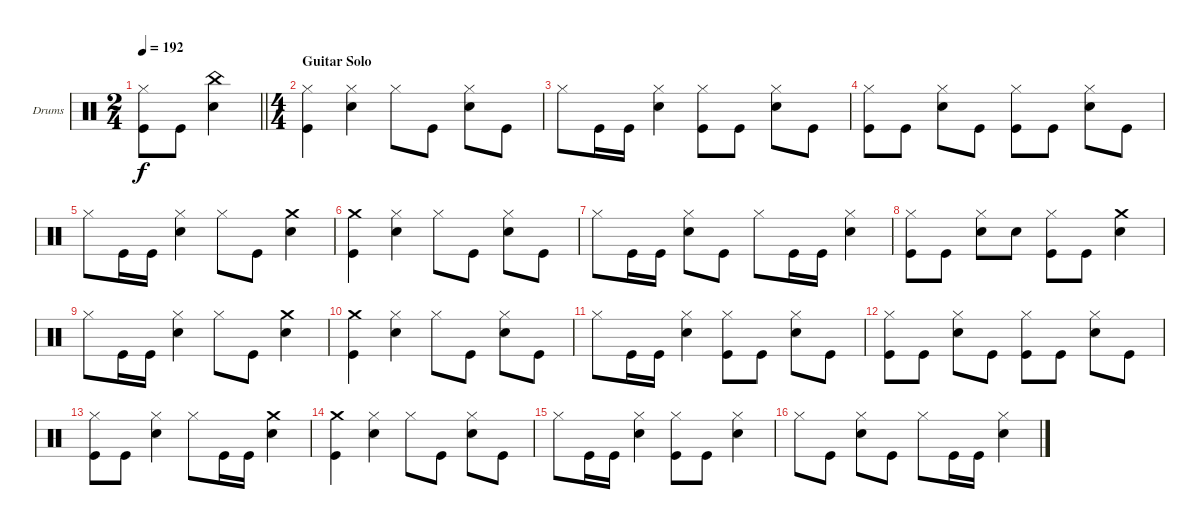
\bracketExtendMode groupsimilarinstruments
\firstSystemTrackNameOrientation horizontal
\otherSystemsTrackNameOrientation horizontal
\track ("Lars Ulrich" "Drums") {instrument percussion}
\staff {score}
\articulation defaults
\ts (2 4)
\beaming (8 2 2)
\tempo 192
\clef neutral
\barLineRight lightlight
\ks c
("Hi-Hat (closed)" "Kick (hit)").8{dy f} "Kick (hit)".8 ("China (hit)" "Snare (hit) 2").4 |
\ts (4 4)
\beaming (8 2 2 2 2)
\section ("" "Guitar Solo")
("Hi-Hat (closed)" "Kick (hit)").4 ("Hi-Hat (closed)" "Snare (hit) 2").4 "Hi-Hat (closed)".8 "Kick (hit)".8 ("Hi-Hat (closed)" "Snare (hit) 2").8 "Kick (hit)".8 |
"Hi-Hat (closed)".8 "Kick (hit)".16 "Kick (hit)".16 ("Hi-Hat (closed)" "Snare (hit) 2").4 ("Hi-Hat (closed)" "Kick (hit)").8 "Kick (hit)".8 ("Hi-Hat (closed)" "Snare (hit) 2").8 "Kick (hit)".8 |
("Hi-Hat (closed)" "Kick (hit)").8 "Kick (hit)".8 ("Hi-Hat (closed)" "Snare (hit) 2").8 "Kick (hit)".8 ("Hi-Hat (closed)" "Kick (hit)").8 "Kick (hit)".8 ("Hi-Hat (closed)" "Snare (hit) 2").8 "Kick (hit)".8 |
"Hi-Hat (closed)".8 "Kick (hit)".16 "Kick (hit)".16 ("Hi-Hat (closed)" "Snare (hit) 2").4 "Hi-Hat (closed)".8 "Kick (hit)".8 ("Crash medium (hit)" "Snare (hit) 2").4 |
("Crash medium (hit)" "Kick (hit)").4 ("Hi-Hat (closed)" "Snare (hit) 2").4 "Hi-Hat (closed)".8 "Kick (hit)".8 ("Hi-Hat (closed)" "Snare (hit) 2").8 "Kick (hit)".8 |
"Hi-Hat (closed)".8 "Kick (hit)".16 "Kick (hit)".16 ("Hi-Hat (closed)" "Snare (hit) 2").8 "Kick (hit)".8 "Hi-Hat (closed)".8 "Kick (hit)".16 "Kick (hit)".16 ("Hi-Hat (closed)" "Snare (hit) 2").4 |
("Hi-Hat (closed)" "Kick (hit)").8 "Kick (hit)".8 ("Hi-Hat (closed)" "Snare (hit) 2").8 "Snare (hit) 2".8 ("Hi-Hat (closed)" "Kick (hit)").8 "Kick (hit)".8 ("Crash medium (hit)" "Snare (hit) 2").4 |
"Hi-Hat (closed)".8 "Kick (hit)".16 "Kick (hit)".16 ("Hi-Hat (closed)" "Snare (hit) 2").4 "Hi-Hat (closed)".8 "Kick (hit)".8 ("Crash medium (hit)" "Snare (hit) 2").4 |
("Crash medium (hit)" "Kick (hit)").4 ("Hi-Hat (closed)" "Snare (hit) 2").4 "Hi-Hat (closed)".8 "Kick (hit)".8 ("Hi-Hat (closed)" "Snare (hit) 2").8 "Kick (hit)".8 |
"Hi-Hat (closed)".8 "Kick (hit)".16 "Kick (hit)".16 ("Hi-Hat (closed)" "Snare (hit) 2").4 ("Hi-Hat (closed)" "Kick (hit)").8 "Kick (hit)".8 ("Hi-Hat (closed)" "Snare (hit) 2").8 "Kick (hit)".8 |
("Hi-Hat (closed)" "Kick (hit)").8 "Kick (hit)".8 ("Hi-Hat (closed)" "Snare (hit) 2").8 "Kick (hit)".8 ("Hi-Hat (closed)" "Kick (hit)").8 "Kick (hit)".8 ("Hi-Hat (closed)" "Snare (hit) 2").8 "Kick (hit)".8 |
("Hi-Hat (closed)" "Kick (hit)").8 "Kick (hit)".8 ("Hi-Hat (closed)" "Snare (hit) 2").4 "Hi-Hat (closed)".8 "Kick (hit)".16 "Kick (hit)".16 ("Crash medium (hit)" "Snare (hit) 2").4 |
("Crash medium (hit)" "Kick (hit)").4 ("Hi-Hat (closed)" "Snare (hit) 2").4 "Hi-Hat (closed)".8 "Kick (hit)".8 ("Hi-Hat (closed)" "Snare (hit) 2").8 "Kick (hit)".8 |
"Hi-Hat (closed)".8 "Kick (hit)".16 "Kick (hit)".16 ("Hi-Hat (closed)" "Snare (hit) 2").4 ("Hi-Hat (closed)" "Kick (hit)").8 "Kick (hit)".8 ("Hi-Hat (closed)" "Snare (hit) 2").4 |
"Hi-Hat (closed)".8 "Kick (hit)".8 ("Hi-Hat (closed)" "Snare (hit) 2").8 "Kick (hit)".8 "Hi-Hat (closed)".8 "Kick (hit)".16 "Kick (hit)".16 ("Hi-Hat (closed)" "Snare (hit) 2").4
